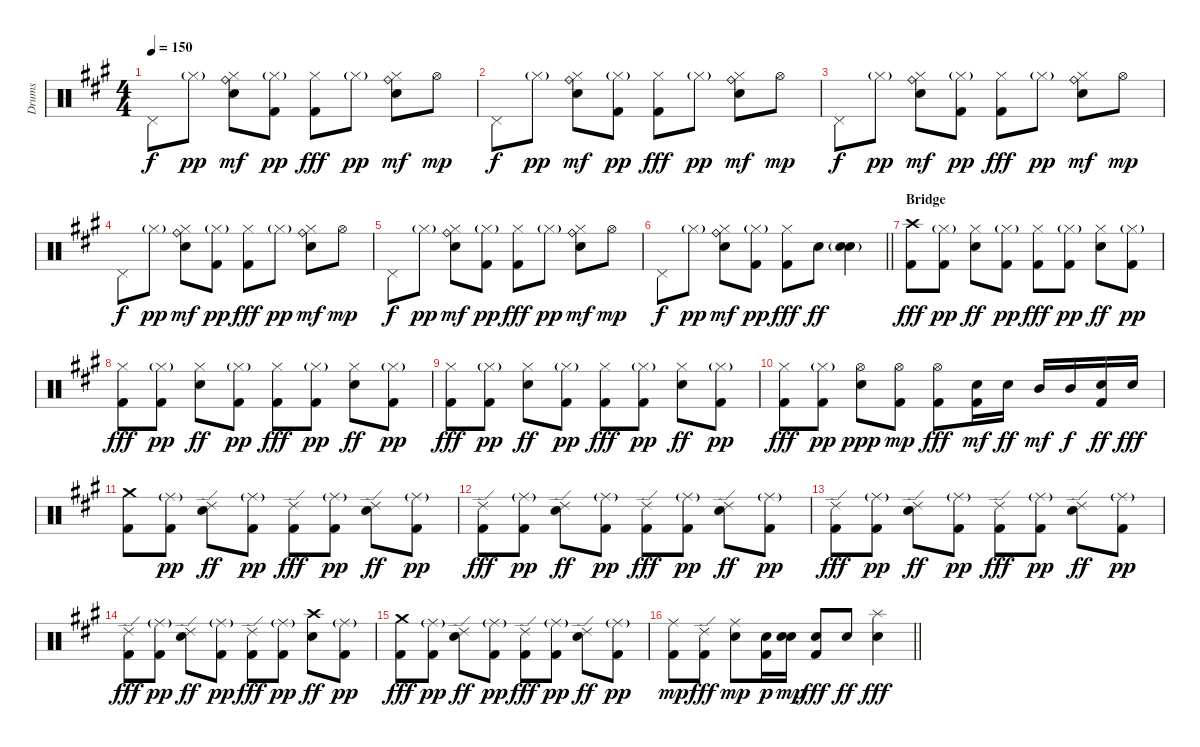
\track ("Drums" "Drums") {instrument percussion}
\staff {score}
\articulation defaults
\ts (4 4)
\tempo 150
\clef neutral
\ks a "Pedal Hi-Hat (hit)".8{dy f} "Hi-Hat (closed)"{g}.8{dy pp}
("Electric Snare (hit)" "Hi-Hat (closed)" "Ride (bell)").8{dy mf} ("Kick (hit) 2" "Hi-Hat (closed)"{g}).8{dy pp} ("Kick (hit) 2" "Hi-Hat (closed)").8{dy fff} "Hi-Hat (closed)"{g}.8{dy pp} ("Electric Snare (hit)" "Hi-Hat (closed)" "Ride (bell)").8{dy mf} "Hi-Hat (open)".8{dy mp} |
"Pedal Hi-Hat (hit)".8{dy f} "Hi-Hat (closed)"{g}.8{dy pp} ("Electric Snare (hit)" "Hi-Hat (closed)" "Ride (bell)").8{dy mf} ("Kick (hit) 2" "Hi-Hat (closed)"{g}).8{dy pp} ("Kick (hit) 2" "Hi-Hat (closed)").8{dy fff} "Hi-Hat (closed)"{g}.8{dy pp} ("Electric Snare (hit)" "Hi-Hat (closed)" "Ride (bell)").8{dy mf} "Hi-Hat (open)".8{dy mp} |
"Pedal Hi-Hat (hit)".8{dy f} "Hi-Hat (closed)"{g}.8{dy pp} ("Electric Snare (hit)" "Hi-Hat (closed)" "Ride (bell)").8{dy mf} ("Kick (hit) 2" "Hi-Hat (closed)"{g}).8{dy pp} ("Kick (hit) 2" "Hi-Hat (closed)").8{dy fff} "Hi-Hat (closed)"{g}.8{dy pp} ("Electric Snare (hit)" "Hi-Hat (closed)" "Ride (bell)").8{dy mf} "Hi-Hat (open)".8{dy mp} |
"Pedal Hi-Hat (hit)".8{dy f} "Hi-Hat (closed)"{g}.8{dy pp} ("Electric Snare (hit)" "Hi-Hat (closed)" "Ride (bell)").8{dy mf} ("Kick (hit) 2" "Hi-Hat (closed)"{g}).8{dy pp} ("Kick (hit) 2" "Hi-Hat (closed)").8{dy fff} "Hi-Hat (closed)"{g}.8{dy pp} ("Electric Snare (hit)" "Hi-Hat (closed)" "Ride (bell)").8{dy mf} "Hi-Hat (open)".8{dy mp} |
"Pedal Hi-Hat (hit)".8{dy f} "Hi-Hat (closed)"{g}.8{dy pp} ("Electric Snare (hit)" "Hi-Hat (closed)" "Ride (bell)").8{dy mf} ("Kick (hit) 2" "Hi-Hat (closed)"{g}).8{dy pp} ("Kick (hit) 2" "Hi-Hat (closed)").8{dy fff} "Hi-Hat (closed)"{g}.8{dy pp} ("Electric Snare (hit)" "Hi-Hat (closed)" "Ride (bell)").8{dy mf} "Hi-Hat (open)".8{dy mp} |
\barLineRight lightlight "Pedal Hi-Hat (hit)".8{dy f} "Hi-Hat (closed)"{g}.8{dy pp}
("Electric Snare (hit)" "Hi-Hat (closed)" "Ride (bell)").8{dy mf} ("Kick (hit) 2" "Hi-Hat (closed)"{g}).8{dy pp} ("Kick (hit) 2" "Hi-Hat (closed)").8{dy fff} "Electric Snare (hit)".8{dy ff} ("Snare (hit) 2"{g} "Electric Snare (hit)").4 |
\section ("" "Bridge")
("Kick (hit) 2" "Crash high (hit)").8{dy fff} ("Kick (hit) 2" "Hi-Hat (closed)"{g}).8{dy pp} ("Electric Snare (hit)" "Hi-Hat (closed)").8{dy ff} ("Kick (hit) 2" "Hi-Hat (closed)"{g}).8{dy pp} ("Kick (hit) 2" "Hi-Hat (closed)").8{dy fff} ("Kick (hit) 2" "Hi-Hat (closed)"{g}).8{dy pp} ("Electric Snare (hit)" "Hi-Hat (closed)").8{dy ff} ("Kick (hit) 2" "Hi-Hat (closed)"{g}).8{dy pp} |
("Kick (hit) 2" "Hi-Hat (closed)").8{dy fff} ("Kick (hit) 2" "Hi-Hat (closed)"{g}).8{dy pp} ("Electric Snare (hit)" "Hi-Hat (closed)").8{dy ff} ("Kick (hit) 2" "Hi-Hat (closed)"{g}).8{dy pp} ("Kick (hit) 2" "Hi-Hat (closed)").8{dy fff} ("Kick (hit) 2" "Hi-Hat (closed)"{g}).8{dy pp} ("Electric Snare (hit)" "Hi-Hat (closed)").8{dy ff} ("Kick (hit) 2" "Hi-Hat (closed)"{g}).8{dy pp} |
("Kick (hit) 2" "Hi-Hat (closed)").8{dy fff} ("Kick (hit) 2" "Hi-Hat (closed)"{g}).8{dy pp} ("Electric Snare (hit)" "Hi-Hat (closed)").8{dy ff} ("Kick (hit) 2" "Hi-Hat (closed)"{g}).8{dy pp} ("Kick (hit) 2" "Hi-Hat (closed)").8{dy fff} ("Kick (hit) 2" "Hi-Hat (closed)"{g}).8{dy pp} ("Electric Snare (hit)" "Hi-Hat (closed)").8{dy ff} ("Kick (hit) 2" "Hi-Hat (closed)"{g}).8{dy pp} |
("Kick (hit) 2" "Hi-Hat (closed)").8{dy fff} ("Kick (hit) 2" "Hi-Hat (closed)"{g}).8{dy pp} ("Electric Snare (hit)" "Hi-Hat (open)").8{dy ppp} ("Kick (hit) 2" "Hi-Hat (open)").8{dy mp} ("Kick (hit) 2" "Hi-Hat (open)").8{dy fff} ("Kick (hit) 2" "Electric Snare (hit)").16{dy mf} "Electric Snare (hit)".16{dy ff} "Mid Tom (hit)".16{dy mf} "Mid Tom (hit)".16{dy f} ("Kick (hit) 2" "Electric Snare (hit)").16{dy ff} "Electric Snare (hit)".16{dy fff} |
("Kick (hit) 2" "Crash medium (hit)").8 ("Kick (hit) 2" "Ride (middle)"{g}).8{dy pp} ("Electric Snare (hit)" "Ride (edge) 2").8{dy ff} ("Kick (hit) 2" "Ride (middle)"{g}).8{dy pp} ("Kick (hit) 2" "Ride (edge) 2").8{dy fff} ("Kick (hit) 2" "Ride (middle)"{g}).8{dy pp} ("Electric Snare (hit)" "Ride (edge) 2").8{dy ff} ("Kick (hit) 2" "Ride (middle)"{g}).8{dy pp} |
("Kick (hit) 2" "Ride (edge) 2").8{dy fff} ("Kick (hit) 2" "Ride (middle)"{g}).8{dy pp} ("Electric Snare (hit)" "Ride (edge) 2").8{dy ff} ("Kick (hit) 2" "Ride (middle)"{g}).8{dy pp} ("Kick (hit) 2" "Ride (edge) 2").8{dy fff} ("Kick (hit) 2" "Ride (middle)"{g}).8{dy pp} ("Electric Snare (hit)" "Ride (edge) 2").8{dy ff} ("Kick (hit) 2" "Ride (middle)"{g}).8{dy pp} |
("Kick (hit) 2" "Ride (edge) 2").8{dy fff} ("Kick (hit) 2" "Ride (middle)"{g}).8{dy pp} ("Electric Snare (hit)" "Ride (edge) 2").8{dy ff} ("Kick (hit) 2" "Ride (middle)"{g}).8{dy pp} ("Kick (hit) 2" "Ride (edge) 2").8{dy fff} ("Kick (hit) 2" "Ride (middle)"{g}).8{dy pp} ("Electric Snare (hit)" "Ride (edge) 2").8{dy ff} ("Kick (hit) 2" "Ride (middle)"{g}).8{dy pp} |
("Kick (hit) 2" "Ride (edge) 2").8{dy fff} ("Kick (hit) 2" "Ride (middle)"{g}).8{dy pp} ("Electric Snare (hit)" "Ride (edge) 2").8{dy ff} ("Kick (hit) 2" "Ride (middle)"{g}).8{dy pp} ("Kick (hit) 2" "Ride (edge) 2").8{dy fff} ("Kick (hit) 2" "Ride (middle)"{g}).8{dy pp} ("Electric Snare (hit)" "Crash high (hit)").8{dy ff} ("Kick (hit) 2" "Ride (middle)"{g}).8{dy pp} |
("Kick (hit) 2" "Crash medium (hit)").8{dy fff} ("Kick (hit) 2" "Ride (middle)"{g}).8{dy pp} ("Electric Snare (hit)" "Ride (edge) 2").8{dy ff} ("Kick (hit) 2" "Ride (middle)"{g}).8{dy pp} ("Kick (hit) 2" "Ride (edge) 2").8{dy fff} ("Kick (hit) 2" "Ride (middle)"{g}).8{dy pp} ("Electric Snare (hit)" "Ride (edge) 2").8{dy ff} ("Kick (hit) 2" "Ride (middle)"{g}).8{dy pp} |
\barLineRight lightlight
("Kick (hit) 2" "Ride (middle)").8{dy mp} ("Kick (hit) 2" "Ride (edge) 2").8{dy fff} ("Electric Snare (hit)" "Ride (middle)").8{dy mp} ("Kick (hit) 2" "Electric Snare (hit)").16{dy p} ("Electric Snare (hit)" "Snare (hit) 2").16{dy mp} ("Kick (hit) 2" "Electric Snare (hit)").8{dy fff} "Electric Snare (hit)".8{dy ff} ("Electric Snare (hit)" "Splash (hit)").4{dy fff}
